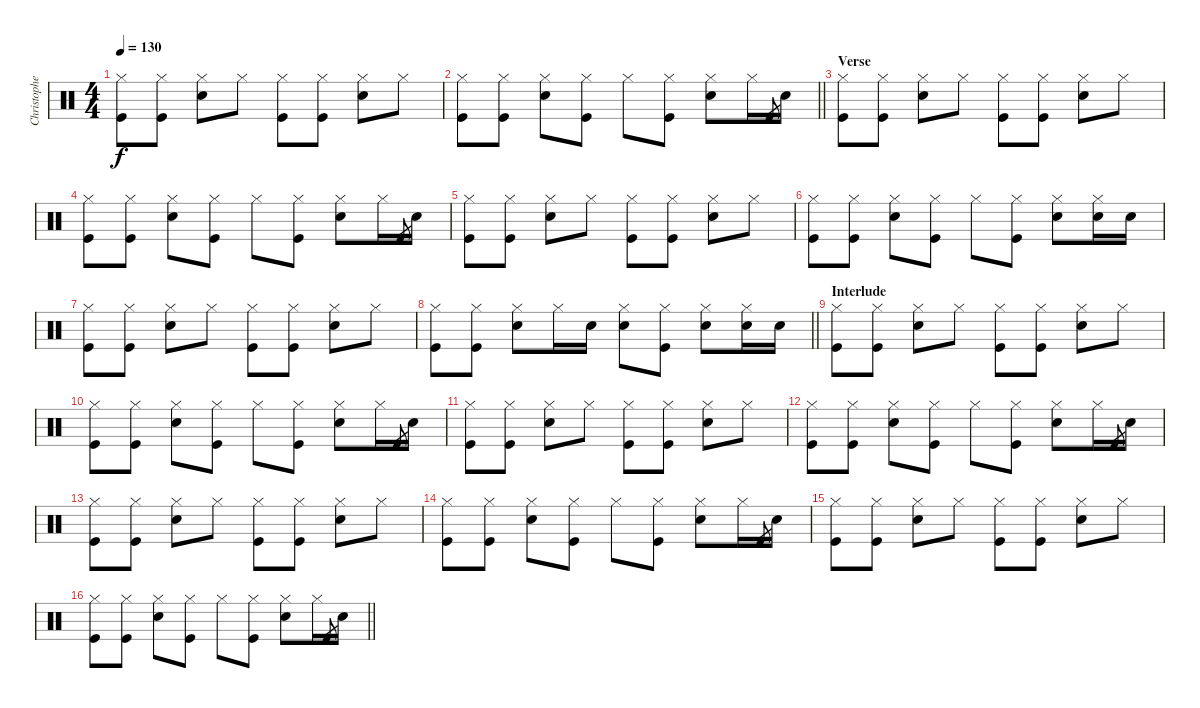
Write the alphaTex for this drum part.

\track ("Christopher - Drums" "Christophe") {instrument percussion}
\staff {score}
\articulation defaults
\ts (4 4)
\tempo 130
\clef neutral
\ks c
("Hi-Hat (closed)" "Kick (hit)").8{dy f} ("Hi-Hat (closed)" "Kick (hit)").8 ("Hi-Hat (closed)" "Snare (hit) 2").8 "Hi-Hat (closed)".8 ("Hi-Hat (closed)" "Kick (hit)").8 ("Hi-Hat (closed)" "Kick (hit)").8 ("Hi-Hat (closed)" "Snare (hit) 2").8 "Hi-Hat (closed)".8 |
\barLineRight lightlight
("Hi-Hat (closed)" "Kick (hit)").8 ("Hi-Hat (closed)" "Kick (hit)").8 ("Hi-Hat (closed)" "Snare (hit) 2").8 ("Hi-Hat (closed)" "Kick (hit)").8 "Hi-Hat (closed)".8 ("Hi-Hat (closed)" "Kick (hit)").8 ("Hi-Hat (closed)" "Snare (hit) 2").8 "Hi-Hat (closed)".16 "Kick (hit)".8{gr} "Snare (hit) 2".16 |
\section ("" "Verse")
("Hi-Hat (closed)" "Kick (hit)").8 ("Hi-Hat (closed)" "Kick (hit)").8 ("Hi-Hat (closed)" "Snare (hit) 2").8 "Hi-Hat (closed)".8 ("Hi-Hat (closed)" "Kick (hit)").8 ("Hi-Hat (closed)" "Kick (hit)").8 ("Hi-Hat (closed)" "Snare (hit) 2").8 "Hi-Hat (closed)".8 |
("Hi-Hat (closed)" "Kick (hit)").8 ("Hi-Hat (closed)" "Kick (hit)").8 ("Hi-Hat (closed)" "Snare (hit) 2").8 ("Hi-Hat (closed)" "Kick (hit)").8 "Hi-Hat (closed)".8 ("Hi-Hat (closed)" "Kick (hit)").8 ("Hi-Hat (closed)" "Snare (hit) 2").8 "Hi-Hat (closed)".16 "Kick (hit)".8{gr} "Snare (hit) 2".16 |
("Hi-Hat (closed)" "Kick (hit)").8 ("Hi-Hat (closed)" "Kick (hit)").8 ("Hi-Hat (closed)" "Snare (hit) 2").8 "Hi-Hat (closed)".8 ("Hi-Hat (closed)" "Kick (hit)").8 ("Hi-Hat (closed)" "Kick (hit)").8 ("Hi-Hat (closed)" "Snare (hit) 2").8 "Hi-Hat (closed)".8 |
("Hi-Hat (closed)" "Kick (hit)").8 ("Hi-Hat (closed)" "Kick (hit)").8 ("Hi-Hat (closed)" "Snare (hit) 2").8 ("Hi-Hat (closed)" "Kick (hit)").8 "Hi-Hat (closed)".8 ("Hi-Hat (closed)" "Kick (hit)").8 ("Hi-Hat (closed)" "Snare (hit) 2").8 ("Hi-Hat (closed)" "Snare (hit) 2").16 "Snare (hit) 2".16 |
("Hi-Hat (closed)" "Kick (hit)").8 ("Hi-Hat (closed)" "Kick (hit)").8 ("Hi-Hat (closed)" "Snare (hit) 2").8 "Hi-Hat (closed)".8 ("Hi-Hat (closed)" "Kick (hit)").8 ("Hi-Hat (closed)" "Kick (hit)").8 ("Hi-Hat (closed)" "Snare (hit) 2").8 "Hi-Hat (closed)".8 |
\barLineRight lightlight
("Hi-Hat (closed)" "Kick (hit)").8 ("Hi-Hat (closed)" "Kick (hit)").8 ("Hi-Hat (closed)" "Snare (hit) 2").8 "Hi-Hat (closed)".16 "Snare (hit) 2".16 ("Hi-Hat (closed)" "Snare (hit) 2").8 ("Hi-Hat (closed)" "Kick (hit)").8 ("Hi-Hat (closed)" "Snare (hit) 2").8 ("Hi-Hat (closed)" "Snare (hit) 2").16 "Snare (hit) 2".16 |
\section ("" "Interlude")
("Hi-Hat (closed)" "Kick (hit)").8 ("Hi-Hat (closed)" "Kick (hit)").8 ("Hi-Hat (closed)" "Snare (hit) 2").8 "Hi-Hat (closed)".8 ("Hi-Hat (closed)" "Kick (hit)").8 ("Hi-Hat (closed)" "Kick (hit)").8 ("Hi-Hat (closed)" "Snare (hit) 2").8 "Hi-Hat (closed)".8 |
("Hi-Hat (closed)" "Kick (hit)").8 ("Hi-Hat (closed)" "Kick (hit)").8 ("Hi-Hat (closed)" "Snare (hit) 2").8 ("Hi-Hat (closed)" "Kick (hit)").8 "Hi-Hat (closed)".8 ("Hi-Hat (closed)" "Kick (hit)").8 ("Hi-Hat (closed)" "Snare (hit) 2").8 "Hi-Hat (closed)".16 "Kick (hit)".8{gr} "Snare (hit) 2".16 |
("Hi-Hat (closed)" "Kick (hit)").8 ("Hi-Hat (closed)" "Kick (hit)").8 ("Hi-Hat (closed)" "Snare (hit) 2").8 "Hi-Hat (closed)".8 ("Hi-Hat (closed)" "Kick (hit)").8 ("Hi-Hat (closed)" "Kick (hit)").8 ("Hi-Hat (closed)" "Snare (hit) 2").8 "Hi-Hat (closed)".8 |
("Hi-Hat (closed)" "Kick (hit)").8 ("Hi-Hat (closed)" "Kick (hit)").8 ("Hi-Hat (closed)" "Snare (hit) 2").8 ("Hi-Hat (closed)" "Kick (hit)").8 "Hi-Hat (closed)".8 ("Hi-Hat (closed)" "Kick (hit)").8 ("Hi-Hat (closed)" "Snare (hit) 2").8 "Hi-Hat (closed)".16 "Kick (hit)".8{gr} "Snare (hit) 2".16 |
("Hi-Hat (closed)" "Kick (hit)").8 ("Hi-Hat (closed)" "Kick (hit)").8 ("Hi-Hat (closed)" "Snare (hit) 2").8 "Hi-Hat (closed)".8 ("Hi-Hat (closed)" "Kick (hit)").8 ("Hi-Hat (closed)" "Kick (hit)").8 ("Hi-Hat (closed)" "Snare (hit) 2").8 "Hi-Hat (closed)".8 |
("Hi-Hat (closed)" "Kick (hit)").8 ("Hi-Hat (closed)" "Kick (hit)").8 ("Hi-Hat (closed)" "Snare (hit) 2").8 ("Hi-Hat (closed)" "Kick (hit)").8 "Hi-Hat (closed)".8 ("Hi-Hat (closed)" "Kick (hit)").8 ("Hi-Hat (closed)" "Snare (hit) 2").8 "Hi-Hat (closed)".16 "Kick (hit)".8{gr} "Snare (hit) 2".16 |
("Hi-Hat (closed)" "Kick (hit)").8 ("Hi-Hat (closed)" "Kick (hit)").8 ("Hi-Hat (closed)" "Snare (hit) 2").8 "Hi-Hat (closed)".8 ("Hi-Hat (closed)" "Kick (hit)").8 ("Hi-Hat (closed)" "Kick (hit)").8 ("Hi-Hat (closed)" "Snare (hit) 2").8 "Hi-Hat (closed)".8 |
\barLineRight lightlight
("Hi-Hat (closed)" "Kick (hit)").8 ("Hi-Hat (closed)" "Kick (hit)").8 ("Hi-Hat (closed)" "Snare (hit) 2").8 ("Hi-Hat (closed)" "Kick (hit)").8 "Hi-Hat (closed)".8 ("Hi-Hat (closed)" "Kick (hit)").8 ("Hi-Hat (closed)" "Snare (hit) 2").8 "Hi-Hat (closed)".16 "Kick (hit)".8{gr} "Snare (hit) 2".16
